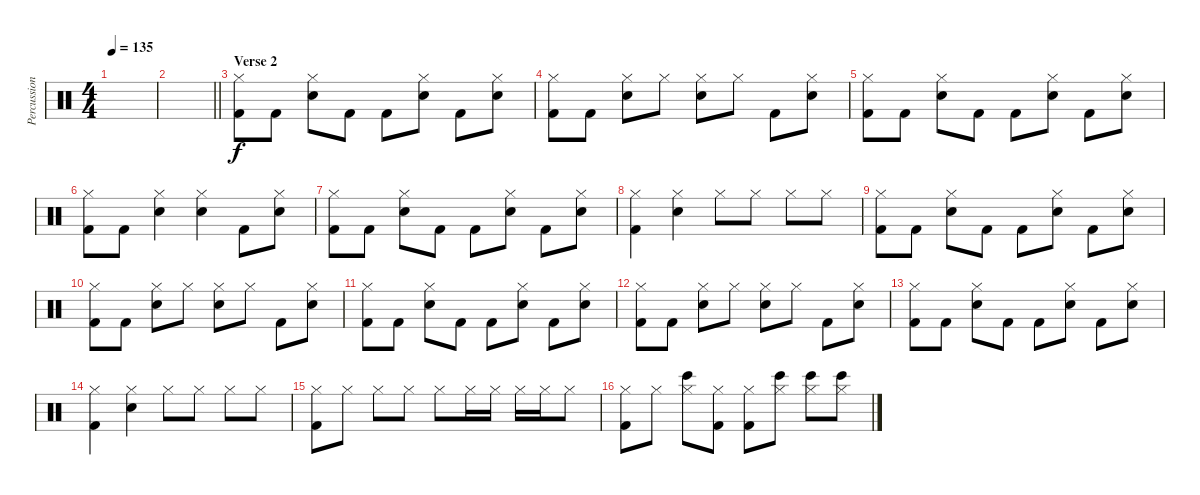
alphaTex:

\track ("Percussion" "Percussion") {instrument percussion}
\staff {score}
\articulation defaults
\ts (4 4)
\tempo 135
\clef neutral
\ks c
|
\barLineRight lightlight
|
\section ("" "Verse 2")
("Hi-Hat (closed)" "Kick (hit) 2").8 "Kick (hit) 2".8 ("Hi-Hat (closed)" "Snare (hit) 2").8 "Kick (hit) 2".8 "Kick (hit) 2".8 ("Hi-Hat (closed)" "Snare (hit) 2").8 "Kick (hit) 2".8 ("Hi-Hat (closed)" "Snare (hit) 2").8 |
("Hi-Hat (closed)" "Kick (hit) 2").8 "Kick (hit) 2".8 ("Hi-Hat (closed)" "Snare (hit) 2").8 "Hi-Hat (closed)".8 ("Hi-Hat (closed)" "Snare (hit) 2").8 "Hi-Hat (closed)".8 "Kick (hit) 2".8 ("Hi-Hat (closed)" "Snare (hit) 2").8 |
("Hi-Hat (closed)" "Kick (hit) 2").8 "Kick (hit) 2".8 ("Hi-Hat (closed)" "Snare (hit) 2").8 "Kick (hit) 2".8 "Kick (hit) 2".8 ("Hi-Hat (closed)" "Snare (hit) 2").8 "Kick (hit) 2".8 ("Hi-Hat (closed)" "Snare (hit) 2").8 |
("Hi-Hat (closed)" "Kick (hit) 2").8 "Kick (hit) 2".8 ("Hi-Hat (closed)" "Snare (hit) 2").4 ("Hi-Hat (closed)" "Snare (hit) 2").4 "Kick (hit) 2".8 ("Hi-Hat (closed)" "Snare (hit) 2").8 |
("Hi-Hat (closed)" "Kick (hit) 2").8 "Kick (hit) 2".8 ("Hi-Hat (closed)" "Snare (hit) 2").8 "Kick (hit) 2".8 "Kick (hit) 2".8 ("Hi-Hat (closed)" "Snare (hit) 2").8 "Kick (hit) 2".8 ("Hi-Hat (closed)" "Snare (hit) 2").8 |
("Hi-Hat (closed)" "Kick (hit) 2").4 ("Hi-Hat (closed)" "Snare (hit) 2").4 "Hi-Hat (closed)".8 "Hi-Hat (closed)".8 "Hi-Hat (closed)".8 "Hi-Hat (closed)".8 |
("Hi-Hat (closed)" "Kick (hit) 2").8 "Kick (hit) 2".8 ("Hi-Hat (closed)" "Snare (hit) 2").8 "Kick (hit) 2".8 "Kick (hit) 2".8 ("Hi-Hat (closed)" "Snare (hit) 2").8 "Kick (hit) 2".8 ("Hi-Hat (closed)" "Snare (hit) 2").8 |
("Hi-Hat (closed)" "Kick (hit) 2").8 "Kick (hit) 2".8 ("Hi-Hat (closed)" "Snare (hit) 2").8 "Hi-Hat (closed)".8 ("Hi-Hat (closed)" "Snare (hit) 2").8 "Hi-Hat (closed)".8 "Kick (hit) 2".8 ("Hi-Hat (closed)" "Snare (hit) 2").8 |
("Hi-Hat (closed)" "Kick (hit) 2").8 "Kick (hit) 2".8 ("Hi-Hat (closed)" "Snare (hit) 2").8 "Kick (hit) 2".8 "Kick (hit) 2".8 ("Hi-Hat (closed)" "Snare (hit) 2").8 "Kick (hit) 2".8 ("Hi-Hat (closed)" "Snare (hit) 2").8 |
("Hi-Hat (closed)" "Kick (hit) 2").8 "Kick (hit) 2".8 ("Hi-Hat (closed)" "Snare (hit) 2").8 "Hi-Hat (closed)".8 ("Hi-Hat (closed)" "Snare (hit) 2").8 "Hi-Hat (closed)".8 "Kick (hit) 2".8 ("Hi-Hat (closed)" "Snare (hit) 2").8 |
("Hi-Hat (closed)" "Kick (hit) 2").8 "Kick (hit) 2".8 ("Hi-Hat (closed)" "Snare (hit) 2").8 "Kick (hit) 2".8 "Kick (hit) 2".8 ("Hi-Hat (closed)" "Snare (hit) 2").8 "Kick (hit) 2".8 ("Hi-Hat (closed)" "Snare (hit) 2").8 |
("Hi-Hat (closed)" "Kick (hit) 2").4 ("Hi-Hat (closed)" "Snare (hit) 2").4 "Hi-Hat (closed)".8 "Hi-Hat (closed)".8 "Hi-Hat (closed)".8 "Hi-Hat (closed)".8 |
("Hi-Hat (closed)" "Kick (hit) 2").8 "Hi-Hat (closed)".8 "Hi-Hat (closed)".8 "Hi-Hat (closed)".8 "Hi-Hat (closed)".8 "Hi-Hat (closed)".16 "Hi-Hat (closed)".16 "Hi-Hat (closed)".16 "Hi-Hat (closed)".16 "Hi-Hat (closed)".8 |
("Hi-Hat (closed)" "Kick (hit) 2").8 "Hi-Hat (closed)".8 ("Hi-Hat (closed)" "Bongo High (hit)").8 ("Hi-Hat (closed)" "Kick (hit) 2").8 ("Hi-Hat (closed)" "Kick (hit) 2").8 ("Hi-Hat (closed)" "Bongo High (hit)").8 ("Hi-Hat (closed)" "Bongo High (hit)").8 ("Hi-Hat (closed)" "Bongo High (hit)").8
